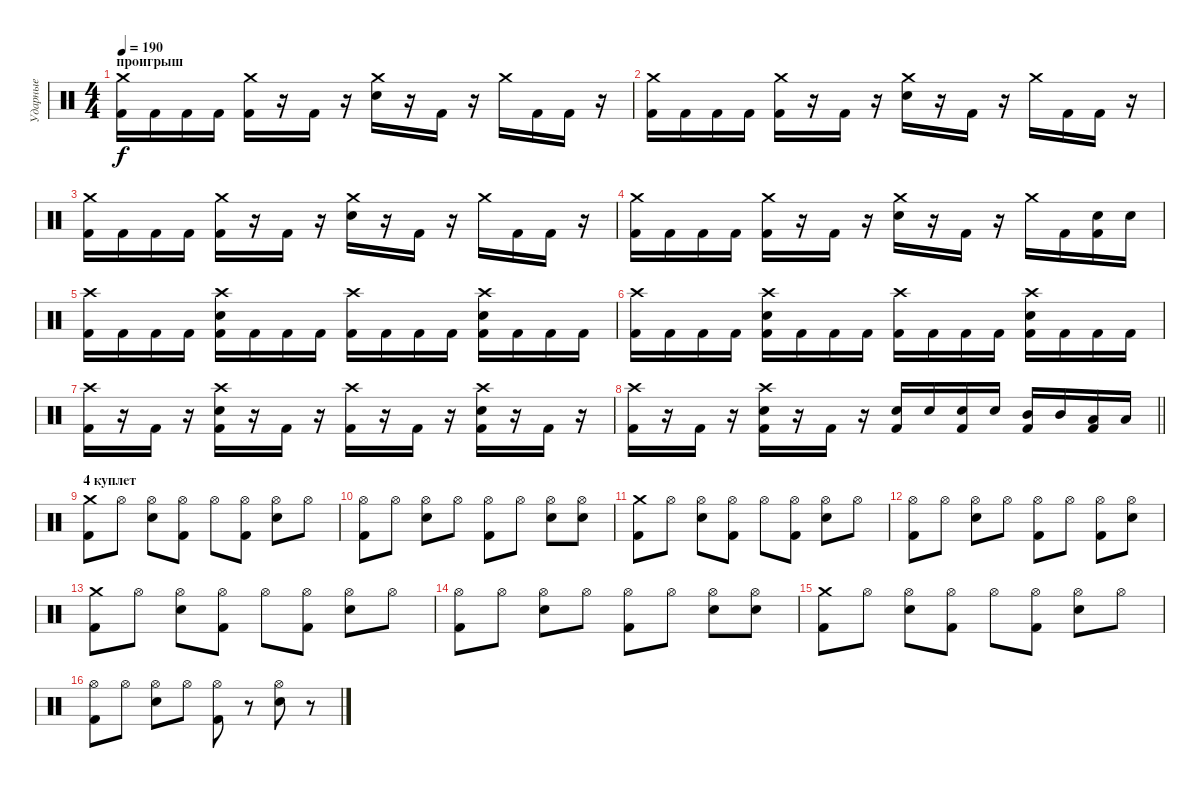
\track ("Ударные" "Ударные") {instrument percussion}
\staff {score}
\articulation defaults
\ts (4 4)
\section ("" "проигрыш")
\tempo 190
\clef neutral
\ks c
("Kick (hit) 2" "Crash medium (hit)").16{dy f} "Kick (hit) 2".16 "Kick (hit) 2".16 "Kick (hit) 2".16 ("Kick (hit) 2" "Crash medium (hit)").16 r.16 "Kick (hit) 2".16 r.16 ("Electric Snare (hit)" "Crash medium (hit)").16 r.16 "Kick (hit) 2".16 r.16 "Crash medium (hit)".16 "Kick (hit) 2".16 "Kick (hit) 2".16 r.16 |
("Kick (hit) 2" "Crash medium (hit)").16 "Kick (hit) 2".16 "Kick (hit) 2".16 "Kick (hit) 2".16 ("Kick (hit) 2" "Crash medium (hit)").16 r.16 "Kick (hit) 2".16 r.16 ("Electric Snare (hit)" "Crash medium (hit)").16 r.16 "Kick (hit) 2".16 r.16 "Crash medium (hit)".16 "Kick (hit) 2".16 "Kick (hit) 2".16 r.16 |
("Kick (hit) 2" "Crash medium (hit)").16 "Kick (hit) 2".16 "Kick (hit) 2".16 "Kick (hit) 2".16 ("Kick (hit) 2" "Crash medium (hit)").16 r.16 "Kick (hit) 2".16 r.16 ("Electric Snare (hit)" "Crash medium (hit)").16 r.16 "Kick (hit) 2".16 r.16 "Crash medium (hit)".16 "Kick (hit) 2".16 "Kick (hit) 2".16 r.16 |
("Kick (hit) 2" "Crash medium (hit)").16 "Kick (hit) 2".16 "Kick (hit) 2".16 "Kick (hit) 2".16 ("Kick (hit) 2" "Crash medium (hit)").16 r.16 "Kick (hit) 2".16 r.16 ("Electric Snare (hit)" "Crash medium (hit)").16 r.16 "Kick (hit) 2".16 r.16 "Crash medium (hit)".16 "Kick (hit) 2".16 ("Electric Snare (hit)" "Kick (hit) 2").16 "Electric Snare (hit)".16 |
("Crash high (hit)" "Kick (hit) 2").16 "Kick (hit) 2".16 "Kick (hit) 2".16 "Kick (hit) 2".16 ("Crash high (hit)" "Electric Snare (hit)" "Kick (hit) 2").16 "Kick (hit) 2".16 "Kick (hit) 2".16 "Kick (hit) 2".16 ("Crash high (hit)" "Kick (hit) 2").16 "Kick (hit) 2".16 "Kick (hit) 2".16 "Kick (hit) 2".16 ("Crash high (hit)" "Electric Snare (hit)" "Kick (hit) 2").16 "Kick (hit) 2".16 "Kick (hit) 2".16 "Kick (hit) 2".16 |
("Crash high (hit)" "Kick (hit) 2").16 "Kick (hit) 2".16 "Kick (hit) 2".16 "Kick (hit) 2".16 ("Crash high (hit)" "Electric Snare (hit)" "Kick (hit) 2").16 "Kick (hit) 2".16 "Kick (hit) 2".16 "Kick (hit) 2".16 ("Crash high (hit)" "Kick (hit) 2").16 "Kick (hit) 2".16 "Kick (hit) 2".16 "Kick (hit) 2".16 ("Crash high (hit)" "Electric Snare (hit)" "Kick (hit) 2").16 "Kick (hit) 2".16 "Kick (hit) 2".16 "Kick (hit) 2".16 |
("Crash high (hit)" "Kick (hit) 2").16 r.16 "Kick (hit) 2".16 r.16 ("Crash high (hit)" "Electric Snare (hit)" "Kick (hit) 2").16 r.16 "Kick (hit) 2".16 r.16 ("Crash high (hit)" "Kick (hit) 2").16 r.16 "Kick (hit) 2".16 r.16 ("Crash high (hit)" "Electric Snare (hit)" "Kick (hit) 2").16 r.16 "Kick (hit) 2".16 r.16 |
\barLineRight lightlight
("Crash high (hit)" "Kick (hit) 2").16 r.16 "Kick (hit) 2".16 r.16 ("Crash high (hit)" "Electric Snare (hit)" "Kick (hit) 2").16 r.16 "Kick (hit) 2".16 r.16 ("Electric Snare (hit)" "Kick (hit) 2").16 "Electric Snare (hit)".16 ("Electric Snare (hit)" "Kick (hit) 2").16 "Electric Snare (hit)".16 ("Mid Tom (hit)" "Kick (hit) 2").16 "Mid Tom (hit)".16 ("Low Floor Tom (hit)" "Kick (hit) 2").16 "Low Floor Tom (hit)".16 |
\section ("" "4 куплет")
("Crash medium (hit)" "Kick (hit) 2").8 "Hi-Hat (open)".8 ("Hi-Hat (open)" "Electric Snare (hit)").8 ("Hi-Hat (open)" "Kick (hit) 2").8 "Hi-Hat (open)".8 ("Hi-Hat (open)" "Kick (hit) 2").8 ("Hi-Hat (open)" "Electric Snare (hit)").8 "Hi-Hat (open)".8 |
("Hi-Hat (open)" "Kick (hit) 2").8 "Hi-Hat (open)".8 ("Hi-Hat (open)" "Electric Snare (hit)").8 "Hi-Hat (open)".8 ("Hi-Hat (open)" "Kick (hit) 2").8 "Hi-Hat (open)".8 ("Hi-Hat (open)" "Electric Snare (hit)").8 ("Hi-Hat (open)" "Electric Snare (hit)").8 |
("Crash medium (hit)" "Kick (hit) 2").8 "Hi-Hat (open)".8 ("Hi-Hat (open)" "Electric Snare (hit)").8 ("Hi-Hat (open)" "Kick (hit) 2").8 "Hi-Hat (open)".8 ("Hi-Hat (open)" "Kick (hit) 2").8 ("Hi-Hat (open)" "Electric Snare (hit)").8 "Hi-Hat (open)".8 |
("Hi-Hat (open)" "Kick (hit) 2").8 "Hi-Hat (open)".8 ("Hi-Hat (open)" "Electric Snare (hit)").8 "Hi-Hat (open)".8 ("Hi-Hat (open)" "Kick (hit) 2").8 "Hi-Hat (open)".8 ("Hi-Hat (open)" "Kick (hit) 2").8 ("Hi-Hat (open)" "Electric Snare (hit)").8 |
("Crash medium (hit)" "Kick (hit) 2").8 "Hi-Hat (open)".8 ("Hi-Hat (open)" "Electric Snare (hit)").8 ("Hi-Hat (open)" "Kick (hit) 2").8 "Hi-Hat (open)".8 ("Hi-Hat (open)" "Kick (hit) 2").8 ("Hi-Hat (open)" "Electric Snare (hit)").8 "Hi-Hat (open)".8 |
("Hi-Hat (open)" "Kick (hit) 2").8 "Hi-Hat (open)".8 ("Hi-Hat (open)" "Electric Snare (hit)").8 "Hi-Hat (open)".8 ("Hi-Hat (open)" "Kick (hit) 2").8 "Hi-Hat (open)".8 ("Hi-Hat (open)" "Electric Snare (hit)").8 ("Hi-Hat (open)" "Electric Snare (hit)").8 |
("Crash medium (hit)" "Kick (hit) 2").8 "Hi-Hat (open)".8 ("Hi-Hat (open)" "Electric Snare (hit)").8 ("Hi-Hat (open)" "Kick (hit) 2").8 "Hi-Hat (open)".8 ("Hi-Hat (open)" "Kick (hit) 2").8 ("Hi-Hat (open)" "Electric Snare (hit)").8 "Hi-Hat (open)".8 |
("Hi-Hat (open)" "Kick (hit) 2").8 "Hi-Hat (open)".8 ("Hi-Hat (open)" "Electric Snare (hit)").8 "Hi-Hat (open)".8 ("Hi-Hat (open)" "Kick (hit) 2").8 r.8 ("Hi-Hat (open)" "Electric Snare (hit)").8 r.8
